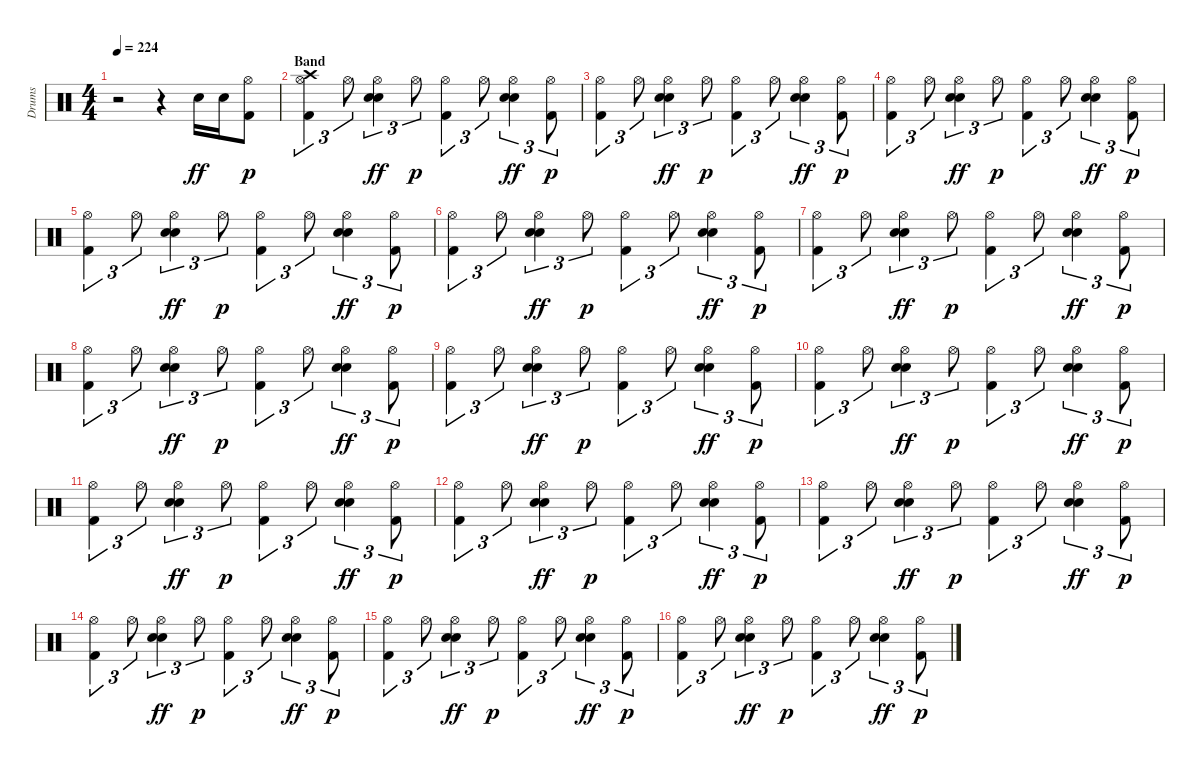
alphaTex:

\track ("Drums" "Drums") {instrument percussion}
\staff {score}
\articulation defaults
\ts (4 4)
\tempo 224
\clef neutral
\ks c
r.2{dy ff} r.4 "Snare (hit) 2".16 "Snare (hit) 2".16 ("Hi-Hat (open)" "Kick (hit) 2").8{dy p} |
\section ("" "Band")
("Crash high (hit)" "Hi-Hat (open)" "Kick (hit) 2").4{tu (3 2)} "Hi-Hat (open)".8{tu (3 2)} ("Hand Clap (hit)" "Hi-Hat (open)" "Snare (hit) 2").4{tu (3 2) dy ff} "Hi-Hat (open)".8{tu (3 2) dy p} ("Hi-Hat (open)" "Kick (hit) 2").4{tu (3 2)} "Hi-Hat (open)".8{tu (3 2)} ("Hand Clap (hit)" "Hi-Hat (open)" "Snare (hit) 2").4{tu (3 2) dy ff} ("Hi-Hat (open)" "Kick (hit) 2").8{tu (3 2) dy p} |
("Hi-Hat (open)" "Kick (hit) 2").4{tu (3 2)} "Hi-Hat (open)".8{tu (3 2)} ("Hand Clap (hit)" "Hi-Hat (open)" "Snare (hit) 2").4{tu (3 2) dy ff} "Hi-Hat (open)".8{tu (3 2) dy p} ("Hi-Hat (open)" "Kick (hit) 2").4{tu (3 2)} "Hi-Hat (open)".8{tu (3 2)} ("Hand Clap (hit)" "Hi-Hat (open)" "Snare (hit) 2").4{tu (3 2) dy ff} ("Hi-Hat (open)" "Kick (hit) 2").8{tu (3 2) dy p} |
("Hi-Hat (open)" "Kick (hit) 2").4{tu (3 2)} "Hi-Hat (open)".8{tu (3 2)} ("Hand Clap (hit)" "Hi-Hat (open)" "Snare (hit) 2").4{tu (3 2) dy ff} "Hi-Hat (open)".8{tu (3 2) dy p} ("Hi-Hat (open)" "Kick (hit) 2").4{tu (3 2)} "Hi-Hat (open)".8{tu (3 2)} ("Hand Clap (hit)" "Hi-Hat (open)" "Snare (hit) 2").4{tu (3 2) dy ff} ("Hi-Hat (open)" "Kick (hit) 2").8{tu (3 2) dy p} |
("Hi-Hat (open)" "Kick (hit) 2").4{tu (3 2)} "Hi-Hat (open)".8{tu (3 2)} ("Hand Clap (hit)" "Hi-Hat (open)" "Snare (hit) 2").4{tu (3 2) dy ff} "Hi-Hat (open)".8{tu (3 2) dy p} ("Hi-Hat (open)" "Kick (hit) 2").4{tu (3 2)} "Hi-Hat (open)".8{tu (3 2)} ("Hand Clap (hit)" "Hi-Hat (open)" "Snare (hit) 2").4{tu (3 2) dy ff} ("Hi-Hat (open)" "Kick (hit) 2").8{tu (3 2) dy p} |
("Hi-Hat (open)" "Kick (hit) 2").4{tu (3 2)} "Hi-Hat (open)".8{tu (3 2)} ("Hand Clap (hit)" "Hi-Hat (open)" "Snare (hit) 2").4{tu (3 2) dy ff} "Hi-Hat (open)".8{tu (3 2) dy p} ("Hi-Hat (open)" "Kick (hit) 2").4{tu (3 2)} "Hi-Hat (open)".8{tu (3 2)} ("Hand Clap (hit)" "Hi-Hat (open)" "Snare (hit) 2").4{tu (3 2) dy ff} ("Hi-Hat (open)" "Kick (hit) 2").8{tu (3 2) dy p} |
("Hi-Hat (open)" "Kick (hit) 2").4{tu (3 2)} "Hi-Hat (open)".8{tu (3 2)} ("Hand Clap (hit)" "Hi-Hat (open)" "Snare (hit) 2").4{tu (3 2) dy ff} "Hi-Hat (open)".8{tu (3 2) dy p} ("Hi-Hat (open)" "Kick (hit) 2").4{tu (3 2)} "Hi-Hat (open)".8{tu (3 2)} ("Hand Clap (hit)" "Hi-Hat (open)" "Snare (hit) 2").4{tu (3 2) dy ff} ("Hi-Hat (open)" "Kick (hit) 2").8{tu (3 2) dy p} |
("Hi-Hat (open)" "Kick (hit) 2").4{tu (3 2)} "Hi-Hat (open)".8{tu (3 2)} ("Hand Clap (hit)" "Hi-Hat (open)" "Snare (hit) 2").4{tu (3 2) dy ff} "Hi-Hat (open)".8{tu (3 2) dy p} ("Hi-Hat (open)" "Kick (hit) 2").4{tu (3 2)} "Hi-Hat (open)".8{tu (3 2)} ("Hand Clap (hit)" "Hi-Hat (open)" "Snare (hit) 2").4{tu (3 2) dy ff} ("Hi-Hat (open)" "Kick (hit) 2").8{tu (3 2) dy p} |
("Hi-Hat (open)" "Kick (hit) 2").4{tu (3 2)} "Hi-Hat (open)".8{tu (3 2)} ("Hand Clap (hit)" "Hi-Hat (open)" "Snare (hit) 2").4{tu (3 2) dy ff} "Hi-Hat (open)".8{tu (3 2) dy p} ("Hi-Hat (open)" "Kick (hit) 2").4{tu (3 2)} "Hi-Hat (open)".8{tu (3 2)} ("Hand Clap (hit)" "Hi-Hat (open)" "Snare (hit) 2").4{tu (3 2) dy ff} ("Hi-Hat (open)" "Kick (hit) 2").8{tu (3 2) dy p} |
("Hi-Hat (open)" "Kick (hit) 2").4{tu (3 2)} "Hi-Hat (open)".8{tu (3 2)} ("Hand Clap (hit)" "Hi-Hat (open)" "Snare (hit) 2").4{tu (3 2) dy ff} "Hi-Hat (open)".8{tu (3 2) dy p} ("Hi-Hat (open)" "Kick (hit) 2").4{tu (3 2)} "Hi-Hat (open)".8{tu (3 2)} ("Hand Clap (hit)" "Hi-Hat (open)" "Snare (hit) 2").4{tu (3 2) dy ff} ("Hi-Hat (open)" "Kick (hit) 2").8{tu (3 2) dy p} |
("Hi-Hat (open)" "Kick (hit) 2").4{tu (3 2)} "Hi-Hat (open)".8{tu (3 2)} ("Hand Clap (hit)" "Hi-Hat (open)" "Snare (hit) 2").4{tu (3 2) dy ff} "Hi-Hat (open)".8{tu (3 2) dy p} ("Hi-Hat (open)" "Kick (hit) 2").4{tu (3 2)} "Hi-Hat (open)".8{tu (3 2)} ("Hand Clap (hit)" "Hi-Hat (open)" "Snare (hit) 2").4{tu (3 2) dy ff} ("Hi-Hat (open)" "Kick (hit) 2").8{tu (3 2) dy p} |
("Hi-Hat (open)" "Kick (hit) 2").4{tu (3 2)} "Hi-Hat (open)".8{tu (3 2)} ("Hand Clap (hit)" "Hi-Hat (open)" "Snare (hit) 2").4{tu (3 2) dy ff} "Hi-Hat (open)".8{tu (3 2) dy p} ("Hi-Hat (open)" "Kick (hit) 2").4{tu (3 2)} "Hi-Hat (open)".8{tu (3 2)} ("Hand Clap (hit)" "Hi-Hat (open)" "Snare (hit) 2").4{tu (3 2) dy ff} ("Hi-Hat (open)" "Kick (hit) 2").8{tu (3 2) dy p} |
("Hi-Hat (open)" "Kick (hit) 2").4{tu (3 2)} "Hi-Hat (open)".8{tu (3 2)} ("Hand Clap (hit)" "Hi-Hat (open)" "Snare (hit) 2").4{tu (3 2) dy ff} "Hi-Hat (open)".8{tu (3 2) dy p} ("Hi-Hat (open)" "Kick (hit) 2").4{tu (3 2)} "Hi-Hat (open)".8{tu (3 2)} ("Hand Clap (hit)" "Hi-Hat (open)" "Snare (hit) 2").4{tu (3 2) dy ff} ("Hi-Hat (open)" "Kick (hit) 2").8{tu (3 2) dy p} |
("Hi-Hat (open)" "Kick (hit) 2").4{tu (3 2)} "Hi-Hat (open)".8{tu (3 2)} ("Hand Clap (hit)" "Hi-Hat (open)" "Snare (hit) 2").4{tu (3 2) dy ff} "Hi-Hat (open)".8{tu (3 2) dy p} ("Hi-Hat (open)" "Kick (hit) 2").4{tu (3 2)} "Hi-Hat (open)".8{tu (3 2)} ("Hand Clap (hit)" "Hi-Hat (open)" "Snare (hit) 2").4{tu (3 2) dy ff} ("Hi-Hat (open)" "Kick (hit) 2").8{tu (3 2) dy p} |
("Hi-Hat (open)" "Kick (hit) 2").4{tu (3 2)} "Hi-Hat (open)".8{tu (3 2)} ("Hand Clap (hit)" "Hi-Hat (open)" "Snare (hit) 2").4{tu (3 2) dy ff} "Hi-Hat (open)".8{tu (3 2) dy p} ("Hi-Hat (open)" "Kick (hit) 2").4{tu (3 2)} "Hi-Hat (open)".8{tu (3 2)} ("Hand Clap (hit)" "Hi-Hat (open)" "Snare (hit) 2").4{tu (3 2) dy ff} ("Hi-Hat (open)" "Kick (hit) 2").8{tu (3 2) dy p} |
("Hi-Hat (open)" "Kick (hit) 2").4{tu (3 2)} "Hi-Hat (open)".8{tu (3 2)} ("Hand Clap (hit)" "Hi-Hat (open)" "Snare (hit) 2").4{tu (3 2) dy ff} "Hi-Hat (open)".8{tu (3 2) dy p} ("Hi-Hat (open)" "Kick (hit) 2").4{tu (3 2)} "Hi-Hat (open)".8{tu (3 2)} ("Hand Clap (hit)" "Hi-Hat (open)" "Snare (hit) 2").4{tu (3 2) dy ff} ("Hi-Hat (open)" "Kick (hit) 2").8{tu (3 2) dy p}
